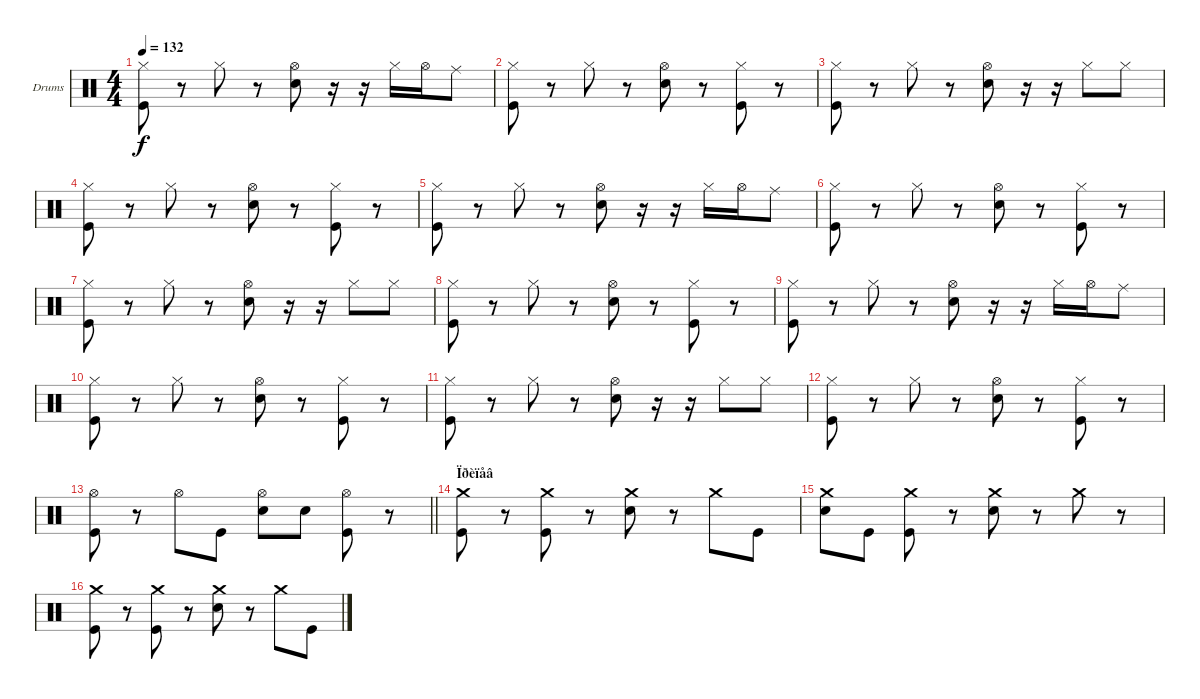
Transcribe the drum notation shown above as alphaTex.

\bracketExtendMode groupsimilarinstruments
\firstSystemTrackNameOrientation horizontal
\otherSystemsTrackNameOrientation horizontal
\track ("Drumkit" "Drums") {instrument percussion}
\staff {score}
\articulation defaults
\ts (4 4)
\tempo 132
\clef neutral
\ks c
("Kick (hit)" "Hi-Hat (closed)").8{dy f} r.8 "Hi-Hat (closed)".8 r.8 ("Snare (hit) 2" "Hi-Hat (open)").8 r.16 r.16 "Hi-Hat (closed)".16 "Hi-Hat (open)".16 "Ride (middle)".8 |
("Kick (hit)" "Hi-Hat (closed)").8 r.8 "Hi-Hat (closed)".8 r.8 ("Snare (hit) 2" "Hi-Hat (open)").8 r.8 ("Kick (hit)" "Hi-Hat (closed)").8 r.8 |
("Kick (hit)" "Hi-Hat (closed)").8 r.8 "Hi-Hat (closed)".8 r.8 ("Snare (hit) 2" "Hi-Hat (open)").8 r.16 r.16 "Hi-Hat (closed)".8 "Hi-Hat (closed)".8 |
("Kick (hit)" "Hi-Hat (closed)").8 r.8 "Hi-Hat (closed)".8 r.8 ("Snare (hit) 2" "Hi-Hat (open)").8 r.8 ("Kick (hit)" "Hi-Hat (closed)").8 r.8 |
("Kick (hit)" "Hi-Hat (closed)").8 r.8 "Hi-Hat (closed)".8 r.8 ("Snare (hit) 2" "Hi-Hat (open)").8 r.16 r.16 "Hi-Hat (closed)".16 "Hi-Hat (open)".16 "Ride (middle)".8 |
("Kick (hit)" "Hi-Hat (closed)").8 r.8 "Hi-Hat (closed)".8 r.8 ("Snare (hit) 2" "Hi-Hat (open)").8 r.8 ("Kick (hit)" "Hi-Hat (closed)").8 r.8 |
("Kick (hit)" "Hi-Hat (closed)").8 r.8 "Hi-Hat (closed)".8 r.8 ("Snare (hit) 2" "Hi-Hat (open)").8 r.16 r.16 "Hi-Hat (closed)".8 "Hi-Hat (closed)".8 |
("Kick (hit)" "Hi-Hat (closed)").8 r.8 "Hi-Hat (closed)".8 r.8 ("Snare (hit) 2" "Hi-Hat (open)").8 r.8 ("Kick (hit)" "Hi-Hat (closed)").8 r.8 |
("Kick (hit)" "Hi-Hat (closed)").8 r.8 "Hi-Hat (closed)".8 r.8 ("Snare (hit) 2" "Hi-Hat (open)").8 r.16 r.16 "Hi-Hat (closed)".16 "Hi-Hat (open)".16 "Ride (middle)".8 |
("Kick (hit)" "Hi-Hat (closed)").8 r.8 "Hi-Hat (closed)".8 r.8 ("Snare (hit) 2" "Hi-Hat (open)").8 r.8 ("Kick (hit)" "Hi-Hat (closed)").8 r.8 |
("Kick (hit)" "Hi-Hat (closed)").8 r.8 "Hi-Hat (closed)".8 r.8 ("Snare (hit) 2" "Hi-Hat (open)").8 r.16 r.16 "Hi-Hat (closed)".8 "Hi-Hat (closed)".8 |
("Kick (hit)" "Hi-Hat (closed)").8 r.8 "Hi-Hat (closed)".8 r.8 ("Snare (hit) 2" "Hi-Hat (open)").8 r.8 ("Kick (hit)" "Hi-Hat (closed)").8 r.8 |
\barLineRight lightlight
("Kick (hit)" "Hi-Hat (open)").8 r.8 "Hi-Hat (open)".8 "Kick (hit)".8 ("Snare (hit) 2" "Hi-Hat (open)").8 "Snare (hit) 2".8 ("Kick (hit)" "Hi-Hat (open)").8 r.8 |
\section ("" "Ïðèïåâ")
("Kick (hit)" "Crash medium (hit)").8 r.8 ("Kick (hit)" "Crash medium (hit)").8 r.8 ("Snare (hit) 2" "Crash medium (hit)").8 r.8 "Crash medium (hit)".8 "Kick (hit)".8 |
("Snare (hit) 2" "Crash medium (hit)").8 "Kick (hit)".8 ("Kick (hit)" "Crash medium (hit)").8 r.8 ("Snare (hit) 2" "Crash medium (hit)").8 r.8 "Crash medium (hit)".8 r.8 |
("Kick (hit)" "Crash medium (hit)").8 r.8 ("Kick (hit)" "Crash medium (hit)").8 r.8 ("Snare (hit) 2" "Crash medium (hit)").8 r.8 "Crash medium (hit)".8 "Kick (hit)".8
